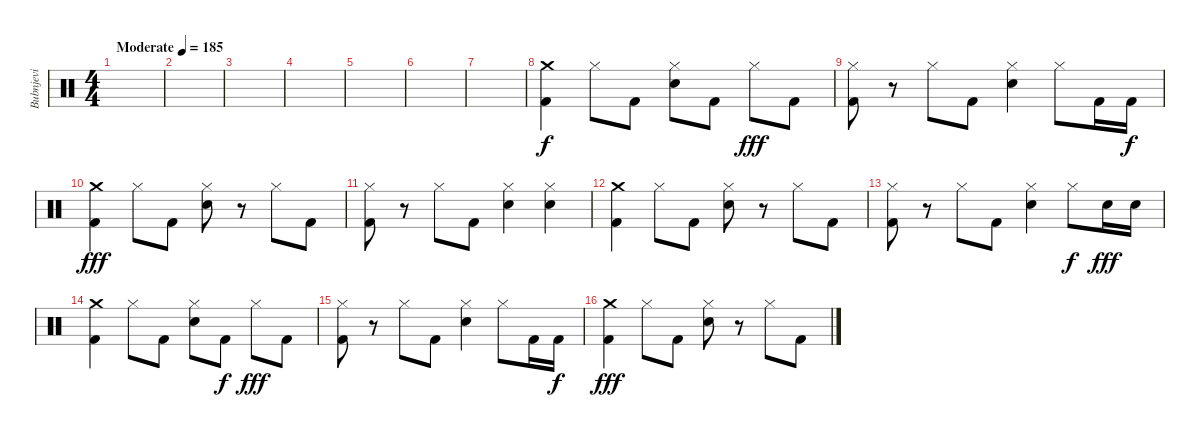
\track ("Bubnjevi" "Bubnjevi") {instrument percussion}
\staff {score}
\articulation defaults
\ts (4 4)
\tempo (185 "Moderate")
\clef neutral
\ks c
|
|
|
|
|
|
|
("Crash medium (hit)" "Kick (hit) 2").4 "Hi-Hat (closed)".8 "Kick (hit) 2".8 ("Hi-Hat (closed)" "Snare (hit) 2").8 "Kick (hit) 2".8{dy f} "Hi-Hat (closed)".8{dy fff} "Kick (hit) 2".8 |
("Hi-Hat (closed)" "Kick (hit) 2").8 r.8 "Hi-Hat (closed)".8 "Kick (hit) 2".8 ("Hi-Hat (closed)" "Snare (hit) 2").4 "Hi-Hat (closed)".8 "Kick (hit) 2".16 "Kick (hit) 2".16{dy f} |
("Crash medium (hit)" "Kick (hit) 2").4{dy fff} "Hi-Hat (closed)".8 "Kick (hit) 2".8 ("Hi-Hat (closed)" "Snare (hit) 2").8 r.8 "Hi-Hat (closed)".8 "Kick (hit) 2".8 |
("Hi-Hat (closed)" "Kick (hit) 2").8 r.8 "Hi-Hat (closed)".8 "Kick (hit) 2".8 ("Hi-Hat (closed)" "Snare (hit) 2").4 ("Hi-Hat (closed)" "Snare (hit) 2").4 |
("Crash medium (hit)" "Kick (hit) 2").4 "Hi-Hat (closed)".8 "Kick (hit) 2".8 ("Hi-Hat (closed)" "Snare (hit) 2").8 r.8 "Hi-Hat (closed)".8 "Kick (hit) 2".8 |
("Hi-Hat (closed)" "Kick (hit) 2").8 r.8 "Hi-Hat (closed)".8 "Kick (hit) 2".8 ("Hi-Hat (closed)" "Snare (hit) 2").4 "Hi-Hat (closed)".8{dy f} "Snare (hit) 2".16{dy fff} "Snare (hit) 2".16 |
("Crash medium (hit)" "Kick (hit) 2").4 "Hi-Hat (closed)".8 "Kick (hit) 2".8 ("Hi-Hat (closed)" "Snare (hit) 2").8 "Kick (hit) 2".8{dy f} "Hi-Hat (closed)".8{dy fff} "Kick (hit) 2".8 |
("Hi-Hat (closed)" "Kick (hit) 2").8 r.8 "Hi-Hat (closed)".8 "Kick (hit) 2".8 ("Hi-Hat (closed)" "Snare (hit) 2").4 "Hi-Hat (closed)".8 "Kick (hit) 2".16 "Kick (hit) 2".16{dy f} |
("Crash medium (hit)" "Kick (hit) 2").4{dy fff} "Hi-Hat (closed)".8 "Kick (hit) 2".8 ("Hi-Hat (closed)" "Snare (hit) 2").8 r.8 "Hi-Hat (closed)".8 "Kick (hit) 2".8
